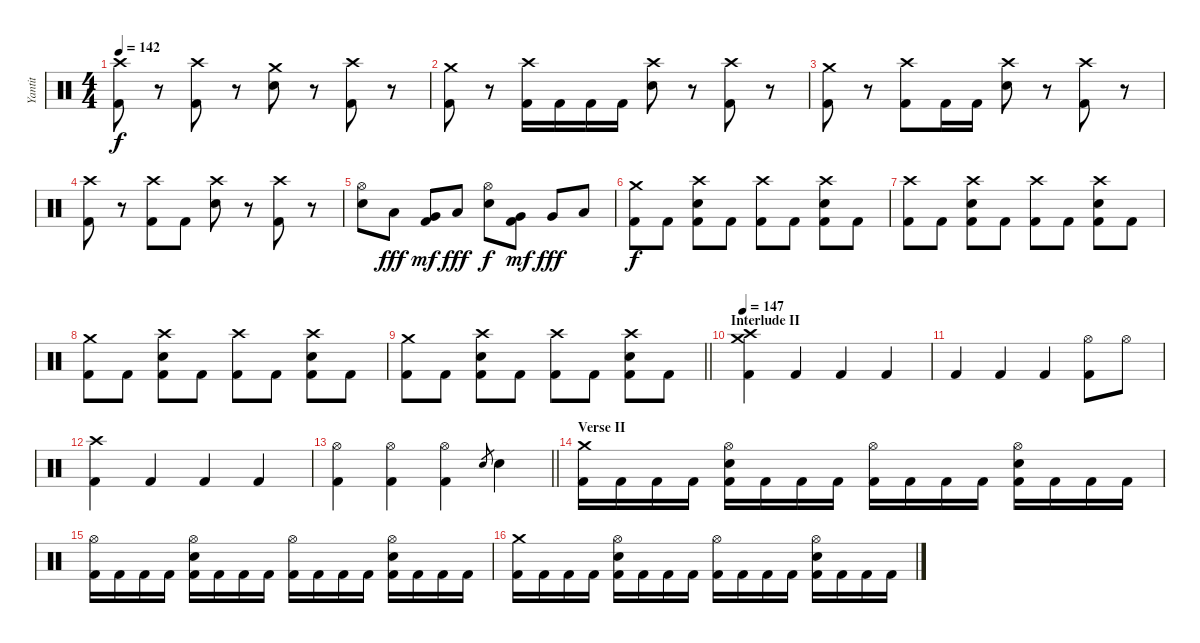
\track ("Yantit" "Yantit") {instrument percussion}
\staff {score}
\articulation defaults
\ts (4 4)
\tempo 142
\clef neutral
\ks c
("Crash high (hit)" "Kick (hit) 2").8{dy f} r.8 ("Crash high (hit)" "Kick (hit) 2").8 r.8 ("Crash medium (hit)" "Electric Snare (hit)").8 r.8 ("Crash high (hit)" "Kick (hit) 2").8 r.8 |
("Crash medium (hit)" "Kick (hit) 2").8 r.8 ("Crash high (hit)" "Kick (hit) 2").16 "Kick (hit) 2".16 "Kick (hit) 2".16 "Kick (hit) 2".16 ("Crash high (hit)" "Electric Snare (hit)").8 r.8 ("Crash high (hit)" "Kick (hit) 2").8 r.8 |
("Crash medium (hit)" "Kick (hit) 2").8 r.8 ("Crash high (hit)" "Kick (hit) 2").8 "Kick (hit) 2".16 "Kick (hit) 2".16 ("Crash high (hit)" "Electric Snare (hit)").8 r.8 ("Crash high (hit)" "Kick (hit) 2").8 r.8 |
("Crash high (hit)" "Kick (hit) 2").8 r.8 ("Crash high (hit)" "Kick (hit) 2").8 "Kick (hit) 2".8 ("Crash high (hit)" "Electric Snare (hit)").8 r.8 ("Crash high (hit)" "Kick (hit) 2").8 r.8 |
("Hi-Hat (open)" "Electric Snare (hit)").8 "Low Tom (hit)".8{dy fff} ("Very Low Tom (hit)" "Kick (hit) 2").8{dy mf} "Low Floor Tom (hit)".8{dy fff} ("Hi-Hat (open)" "Electric Snare (hit)").8{dy f} ("Very Low Tom (hit)" "Kick (hit) 2").8{dy mf} "Very Low Tom (hit)".8{dy fff} "Low Floor Tom (hit)".8 |
("Crash medium (hit)" "Kick (hit) 2").8{dy f} "Kick (hit) 2".8 ("Crash high (hit)" "Electric Snare (hit)" "Kick (hit) 2").8 "Kick (hit) 2".8 ("Crash high (hit)" "Kick (hit) 2").8 "Kick (hit) 2".8 ("Crash high (hit)" "Electric Snare (hit)" "Kick (hit) 2").8 "Kick (hit) 2".8 |
("Crash high (hit)" "Kick (hit) 2").8 "Kick (hit) 2".8 ("Crash high (hit)" "Electric Snare (hit)" "Kick (hit) 2").8 "Kick (hit) 2".8 ("Crash high (hit)" "Kick (hit) 2").8 "Kick (hit) 2".8 ("Crash high (hit)" "Electric Snare (hit)" "Kick (hit) 2").8 "Kick (hit) 2".8 |
("Crash medium (hit)" "Kick (hit) 2").8 "Kick (hit) 2".8 ("Crash high (hit)" "Electric Snare (hit)" "Kick (hit) 2").8 "Kick (hit) 2".8 ("Crash high (hit)" "Kick (hit) 2").8 "Kick (hit) 2".8 ("Crash high (hit)" "Electric Snare (hit)" "Kick (hit) 2").8 "Kick (hit) 2".8 |
\barLineRight lightlight
("Crash medium (hit)" "Kick (hit) 2").8 "Kick (hit) 2".8 ("Crash high (hit)" "Electric Snare (hit)" "Kick (hit) 2").8 "Kick (hit) 2".8 ("Crash high (hit)" "Kick (hit) 2").8 "Kick (hit) 2".8 ("Crash high (hit)" "Electric Snare (hit)" "Kick (hit) 2").8 "Kick (hit) 2".8 |
\section ("" "Interlude II")
\tempo 147
("Crash medium (hit)" "Crash high (hit)" "Kick (hit) 2").4 "Kick (hit) 2".4 "Kick (hit) 2".4 "Kick (hit) 2".4 |
"Kick (hit) 2".4 "Kick (hit) 2".4 "Kick (hit) 2".4 ("Hi-Hat (open)" "Kick (hit) 2").8 "Hi-Hat (open)".8 |
("Crash high (hit)" "Kick (hit) 2").4 "Kick (hit) 2".4 "Kick (hit) 2".4 "Kick (hit) 2".4 |
\barLineRight lightlight
("Hi-Hat (open)" "Kick (hit) 2").4 ("Hi-Hat (open)" "Kick (hit) 2").4 ("Hi-Hat (open)" "Kick (hit) 2").4 "Electric Snare (hit)".8{gr} "Electric Snare (hit)".4 |
\section ("" "Verse II")
("Crash medium (hit)" "Kick (hit) 2").16 "Kick (hit) 2".16 "Kick (hit) 2".16 "Kick (hit) 2".16 ("Hi-Hat (open)" "Electric Snare (hit)" "Kick (hit) 2").16 "Kick (hit) 2".16 "Kick (hit) 2".16 "Kick (hit) 2".16 ("Hi-Hat (open)" "Kick (hit) 2").16 "Kick (hit) 2".16 "Kick (hit) 2".16 "Kick (hit) 2".16 ("Hi-Hat (open)" "Electric Snare (hit)" "Kick (hit) 2").16 "Kick (hit) 2".16 "Kick (hit) 2".16 "Kick (hit) 2".16 |
("Hi-Hat (open)" "Kick (hit) 2").16 "Kick (hit) 2".16 "Kick (hit) 2".16 "Kick (hit) 2".16 ("Hi-Hat (open)" "Electric Snare (hit)" "Kick (hit) 2").16 "Kick (hit) 2".16 "Kick (hit) 2".16 "Kick (hit) 2".16 ("Hi-Hat (open)" "Kick (hit) 2").16 "Kick (hit) 2".16 "Kick (hit) 2".16 "Kick (hit) 2".16 ("Hi-Hat (open)" "Electric Snare (hit)" "Kick (hit) 2").16 "Kick (hit) 2".16 "Kick (hit) 2".16 "Kick (hit) 2".16 |
("Crash medium (hit)" "Kick (hit) 2").16 "Kick (hit) 2".16 "Kick (hit) 2".16 "Kick (hit) 2".16 ("Hi-Hat (open)" "Electric Snare (hit)" "Kick (hit) 2").16 "Kick (hit) 2".16 "Kick (hit) 2".16 "Kick (hit) 2".16 ("Hi-Hat (open)" "Kick (hit) 2").16 "Kick (hit) 2".16 "Kick (hit) 2".16 "Kick (hit) 2".16 ("Hi-Hat (open)" "Electric Snare (hit)" "Kick (hit) 2").16 "Kick (hit) 2".16 "Kick (hit) 2".16 "Kick (hit) 2".16
